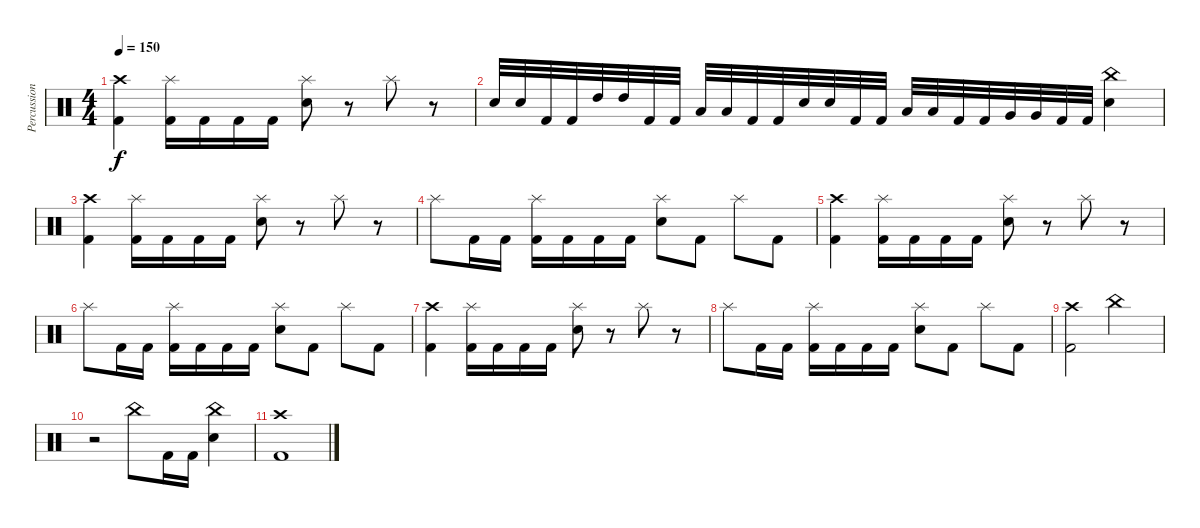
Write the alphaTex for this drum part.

\track ("Percussion" "Percussion") {instrument percussion}
\staff {score}
\articulation defaults
\ts (4 4)
\tempo 150
\clef neutral
\ks c
("Crash high (hit)" "Kick (hit) 2").4{dy f} ("Splash (hit)" "Kick (hit) 2").16 "Kick (hit) 2".16 "Kick (hit) 2".16 "Kick (hit) 2".16 ("Splash (hit)" "Electric Snare (hit)").8 r.8 "Splash (hit)".8 r.8 |
"Electric Snare (hit)".32 "Electric Snare (hit)".32 "Kick (hit) 2".32 "Kick (hit) 2".32 "High Tom (hit)".32 "High Tom (hit)".32 "Kick (hit) 2".32 "Kick (hit) 2".32 "Low Tom (hit)".32 "Low Tom (hit)".32 "Kick (hit) 2".32 "Kick (hit) 2".32 "Electric Snare (hit)".32 "Electric Snare (hit)".32 "Kick (hit) 2".32 "Kick (hit) 2".32 "Low Tom (hit)".32 "Low Tom (hit)".32 "Kick (hit) 2".32 "Kick (hit) 2".32 "Very Low Tom (hit)".32 "Very Low Tom (hit)".32 "Kick (hit) 2".32 "Kick (hit) 2".32 ("China (hit)" "Electric Snare (hit)").4 |
("Crash high (hit)" "Kick (hit) 2").4 ("Splash (hit)" "Kick (hit) 2").16 "Kick (hit) 2".16 "Kick (hit) 2".16 "Kick (hit) 2".16 ("Splash (hit)" "Electric Snare (hit)").8 r.8 "Splash (hit)".8 r.8 |
"Splash (hit)".8 "Kick (hit) 2".16 "Kick (hit) 2".16 ("Splash (hit)" "Kick (hit) 2").16 "Kick (hit) 2".16 "Kick (hit) 2".16 "Kick (hit) 2".16 ("Splash (hit)" "Electric Snare (hit)").8 "Kick (hit) 2".8 "Splash (hit)".8 "Kick (hit) 2".8 |
("Crash high (hit)" "Kick (hit) 2").4 ("Splash (hit)" "Kick (hit) 2").16 "Kick (hit) 2".16 "Kick (hit) 2".16 "Kick (hit) 2".16 ("Splash (hit)" "Electric Snare (hit)").8 r.8 "Splash (hit)".8 r.8 |
"Splash (hit)".8 "Kick (hit) 2".16 "Kick (hit) 2".16 ("Splash (hit)" "Kick (hit) 2").16 "Kick (hit) 2".16 "Kick (hit) 2".16 "Kick (hit) 2".16 ("Splash (hit)" "Electric Snare (hit)").8 "Kick (hit) 2".8 "Splash (hit)".8 "Kick (hit) 2".8 |
("Crash high (hit)" "Kick (hit) 2").4 ("Splash (hit)" "Kick (hit) 2").16 "Kick (hit) 2".16 "Kick (hit) 2".16 "Kick (hit) 2".16 ("Splash (hit)" "Electric Snare (hit)").8 r.8 "Splash (hit)".8 r.8 |
"Splash (hit)".8 "Kick (hit) 2".16 "Kick (hit) 2".16 ("Splash (hit)" "Kick (hit) 2").16 "Kick (hit) 2".16 "Kick (hit) 2".16 "Kick (hit) 2".16 ("Splash (hit)" "Electric Snare (hit)").8 "Kick (hit) 2".8 "Splash (hit)".8 "Kick (hit) 2".8 |
("Crash high (hit)" "Kick (hit) 2").2 "China (hit)".2 |
r.2 "China (hit)".8 "Kick (hit) 2".16 "Kick (hit) 2".16 ("China (hit)" "Electric Snare (hit)").4 |
("Crash high (hit)" "Kick (hit) 2").1
